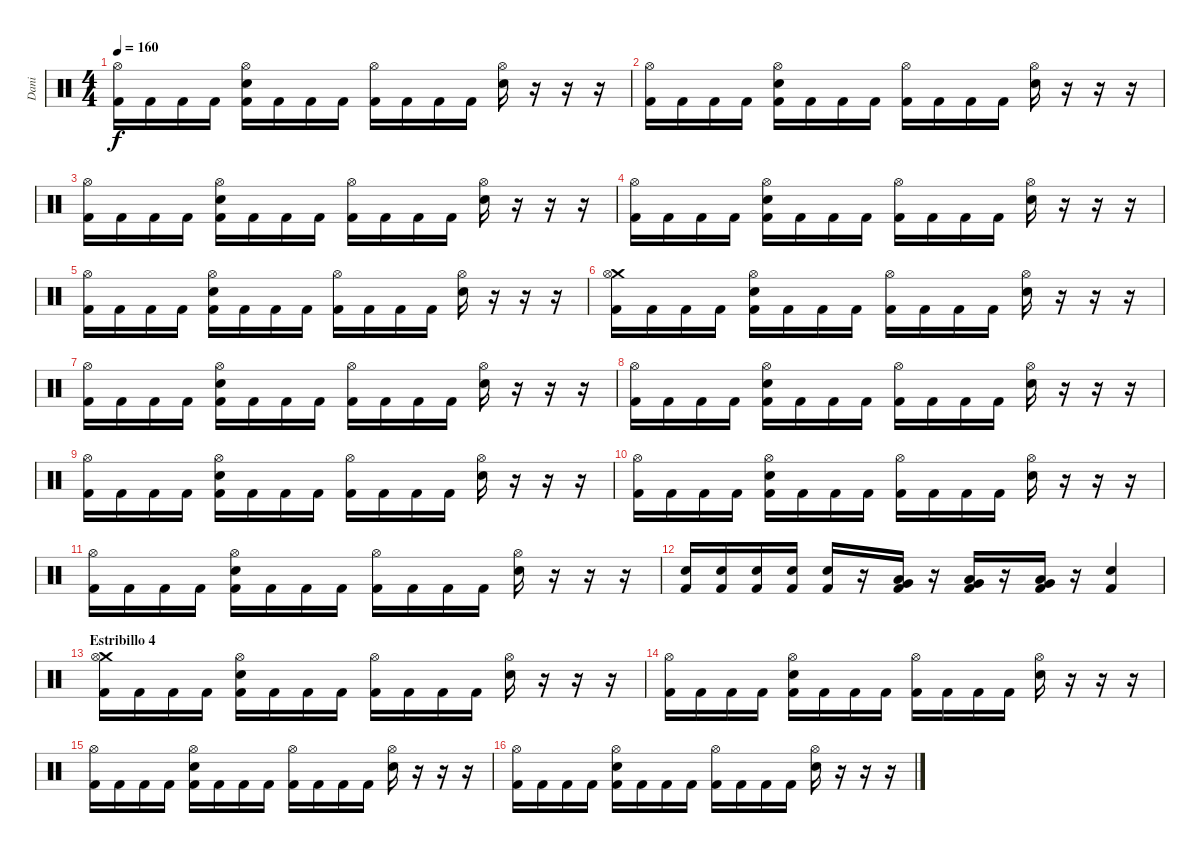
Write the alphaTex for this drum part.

\track ("Dani" "Dani") {instrument percussion}
\staff {score}
\articulation defaults
\ts (4 4)
\tempo 160
\clef neutral
\ks c
("Hi-Hat (open)" "Kick (hit) 2").16{dy f} "Kick (hit) 2".16 "Kick (hit) 2".16 "Kick (hit) 2".16 ("Hi-Hat (open)" "Electric Snare (hit)" "Kick (hit) 2").16 "Kick (hit) 2".16 "Kick (hit) 2".16 "Kick (hit) 2".16 ("Hi-Hat (open)" "Kick (hit) 2").16 "Kick (hit) 2".16 "Kick (hit) 2".16 "Kick (hit) 2".16 ("Hi-Hat (open)" "Electric Snare (hit)").16 r.16 r.16 r.16 |
("Hi-Hat (open)" "Kick (hit) 2").16 "Kick (hit) 2".16 "Kick (hit) 2".16 "Kick (hit) 2".16 ("Hi-Hat (open)" "Electric Snare (hit)" "Kick (hit) 2").16 "Kick (hit) 2".16 "Kick (hit) 2".16 "Kick (hit) 2".16 ("Hi-Hat (open)" "Kick (hit) 2").16 "Kick (hit) 2".16 "Kick (hit) 2".16 "Kick (hit) 2".16 ("Hi-Hat (open)" "Electric Snare (hit)").16 r.16 r.16 r.16 |
("Hi-Hat (open)" "Kick (hit) 2").16 "Kick (hit) 2".16 "Kick (hit) 2".16 "Kick (hit) 2".16 ("Hi-Hat (open)" "Electric Snare (hit)" "Kick (hit) 2").16 "Kick (hit) 2".16 "Kick (hit) 2".16 "Kick (hit) 2".16 ("Hi-Hat (open)" "Kick (hit) 2").16 "Kick (hit) 2".16 "Kick (hit) 2".16 "Kick (hit) 2".16 ("Hi-Hat (open)" "Electric Snare (hit)").16 r.16 r.16 r.16 |
("Hi-Hat (open)" "Kick (hit) 2").16 "Kick (hit) 2".16 "Kick (hit) 2".16 "Kick (hit) 2".16 ("Hi-Hat (open)" "Electric Snare (hit)" "Kick (hit) 2").16 "Kick (hit) 2".16 "Kick (hit) 2".16 "Kick (hit) 2".16 ("Hi-Hat (open)" "Kick (hit) 2").16 "Kick (hit) 2".16 "Kick (hit) 2".16 "Kick (hit) 2".16 ("Hi-Hat (open)" "Electric Snare (hit)").16 r.16 r.16 r.16 |
("Hi-Hat (open)" "Kick (hit) 2").16 "Kick (hit) 2".16 "Kick (hit) 2".16 "Kick (hit) 2".16 ("Hi-Hat (open)" "Electric Snare (hit)" "Kick (hit) 2").16 "Kick (hit) 2".16 "Kick (hit) 2".16 "Kick (hit) 2".16 ("Hi-Hat (open)" "Kick (hit) 2").16 "Kick (hit) 2".16 "Kick (hit) 2".16 "Kick (hit) 2".16 ("Hi-Hat (open)" "Electric Snare (hit)").16 r.16 r.16 r.16 |
("Crash medium (hit)" "Hi-Hat (open)" "Kick (hit) 2").16 "Kick (hit) 2".16 "Kick (hit) 2".16 "Kick (hit) 2".16 ("Hi-Hat (open)" "Electric Snare (hit)" "Kick (hit) 2").16 "Kick (hit) 2".16 "Kick (hit) 2".16 "Kick (hit) 2".16 ("Hi-Hat (open)" "Kick (hit) 2").16 "Kick (hit) 2".16 "Kick (hit) 2".16 "Kick (hit) 2".16 ("Hi-Hat (open)" "Electric Snare (hit)").16 r.16 r.16 r.16 |
("Hi-Hat (open)" "Kick (hit) 2").16 "Kick (hit) 2".16 "Kick (hit) 2".16 "Kick (hit) 2".16 ("Hi-Hat (open)" "Electric Snare (hit)" "Kick (hit) 2").16 "Kick (hit) 2".16 "Kick (hit) 2".16 "Kick (hit) 2".16 ("Hi-Hat (open)" "Kick (hit) 2").16 "Kick (hit) 2".16 "Kick (hit) 2".16 "Kick (hit) 2".16 ("Hi-Hat (open)" "Electric Snare (hit)").16 r.16 r.16 r.16 |
("Hi-Hat (open)" "Kick (hit) 2").16 "Kick (hit) 2".16 "Kick (hit) 2".16 "Kick (hit) 2".16 ("Hi-Hat (open)" "Electric Snare (hit)" "Kick (hit) 2").16 "Kick (hit) 2".16 "Kick (hit) 2".16 "Kick (hit) 2".16 ("Hi-Hat (open)" "Kick (hit) 2").16 "Kick (hit) 2".16 "Kick (hit) 2".16 "Kick (hit) 2".16 ("Hi-Hat (open)" "Electric Snare (hit)").16 r.16 r.16 r.16 |
("Hi-Hat (open)" "Kick (hit) 2").16 "Kick (hit) 2".16 "Kick (hit) 2".16 "Kick (hit) 2".16 ("Hi-Hat (open)" "Electric Snare (hit)" "Kick (hit) 2").16 "Kick (hit) 2".16 "Kick (hit) 2".16 "Kick (hit) 2".16 ("Hi-Hat (open)" "Kick (hit) 2").16 "Kick (hit) 2".16 "Kick (hit) 2".16 "Kick (hit) 2".16 ("Hi-Hat (open)" "Electric Snare (hit)").16 r.16 r.16 r.16 |
("Hi-Hat (open)" "Kick (hit) 2").16 "Kick (hit) 2".16 "Kick (hit) 2".16 "Kick (hit) 2".16 ("Hi-Hat (open)" "Electric Snare (hit)" "Kick (hit) 2").16 "Kick (hit) 2".16 "Kick (hit) 2".16 "Kick (hit) 2".16 ("Hi-Hat (open)" "Kick (hit) 2").16 "Kick (hit) 2".16 "Kick (hit) 2".16 "Kick (hit) 2".16 ("Hi-Hat (open)" "Electric Snare (hit)").16 r.16 r.16 r.16 |
("Hi-Hat (open)" "Kick (hit) 2").16 "Kick (hit) 2".16 "Kick (hit) 2".16 "Kick (hit) 2".16 ("Hi-Hat (open)" "Electric Snare (hit)" "Kick (hit) 2").16 "Kick (hit) 2".16 "Kick (hit) 2".16 "Kick (hit) 2".16 ("Hi-Hat (open)" "Kick (hit) 2").16 "Kick (hit) 2".16 "Kick (hit) 2".16 "Kick (hit) 2".16 ("Hi-Hat (open)" "Electric Snare (hit)").16 r.16 r.16 r.16 |
("Electric Snare (hit)" "Kick (hit) 2").16 ("Electric Snare (hit)" "Kick (hit) 2").16 ("Electric Snare (hit)" "Kick (hit) 2").16 ("Electric Snare (hit)" "Kick (hit) 2").16 ("Electric Snare (hit)" "Kick (hit) 2").16 r.16 ("Low Floor Tom (hit)" "Very Low Tom (hit)" "Kick (hit) 2").16 r.16 ("Low Floor Tom (hit)" "Very Low Tom (hit)" "Kick (hit) 2").16 r.16 ("Low Floor Tom (hit)" "Very Low Tom (hit)" "Kick (hit) 2").16 r.16 ("Electric Snare (hit)" "Kick (hit) 2").4 |
\section ("" "Estribillo 4")
("Crash medium (hit)" "Hi-Hat (open)" "Kick (hit) 2").16 "Kick (hit) 2".16 "Kick (hit) 2".16 "Kick (hit) 2".16 ("Hi-Hat (open)" "Electric Snare (hit)" "Kick (hit) 2").16 "Kick (hit) 2".16 "Kick (hit) 2".16 "Kick (hit) 2".16 ("Hi-Hat (open)" "Kick (hit) 2").16 "Kick (hit) 2".16 "Kick (hit) 2".16 "Kick (hit) 2".16 ("Hi-Hat (open)" "Electric Snare (hit)").16 r.16 r.16 r.16 |
("Hi-Hat (open)" "Kick (hit) 2").16 "Kick (hit) 2".16 "Kick (hit) 2".16 "Kick (hit) 2".16 ("Hi-Hat (open)" "Electric Snare (hit)" "Kick (hit) 2").16 "Kick (hit) 2".16 "Kick (hit) 2".16 "Kick (hit) 2".16 ("Hi-Hat (open)" "Kick (hit) 2").16 "Kick (hit) 2".16 "Kick (hit) 2".16 "Kick (hit) 2".16 ("Hi-Hat (open)" "Electric Snare (hit)").16 r.16 r.16 r.16 |
("Hi-Hat (open)" "Kick (hit) 2").16 "Kick (hit) 2".16 "Kick (hit) 2".16 "Kick (hit) 2".16 ("Hi-Hat (open)" "Electric Snare (hit)" "Kick (hit) 2").16 "Kick (hit) 2".16 "Kick (hit) 2".16 "Kick (hit) 2".16 ("Hi-Hat (open)" "Kick (hit) 2").16 "Kick (hit) 2".16 "Kick (hit) 2".16 "Kick (hit) 2".16 ("Hi-Hat (open)" "Electric Snare (hit)").16 r.16 r.16 r.16 |
("Hi-Hat (open)" "Kick (hit) 2").16 "Kick (hit) 2".16 "Kick (hit) 2".16 "Kick (hit) 2".16 ("Hi-Hat (open)" "Electric Snare (hit)" "Kick (hit) 2").16 "Kick (hit) 2".16 "Kick (hit) 2".16 "Kick (hit) 2".16 ("Hi-Hat (open)" "Kick (hit) 2").16 "Kick (hit) 2".16 "Kick (hit) 2".16 "Kick (hit) 2".16 ("Hi-Hat (open)" "Electric Snare (hit)").16 r.16 r.16 r.16
